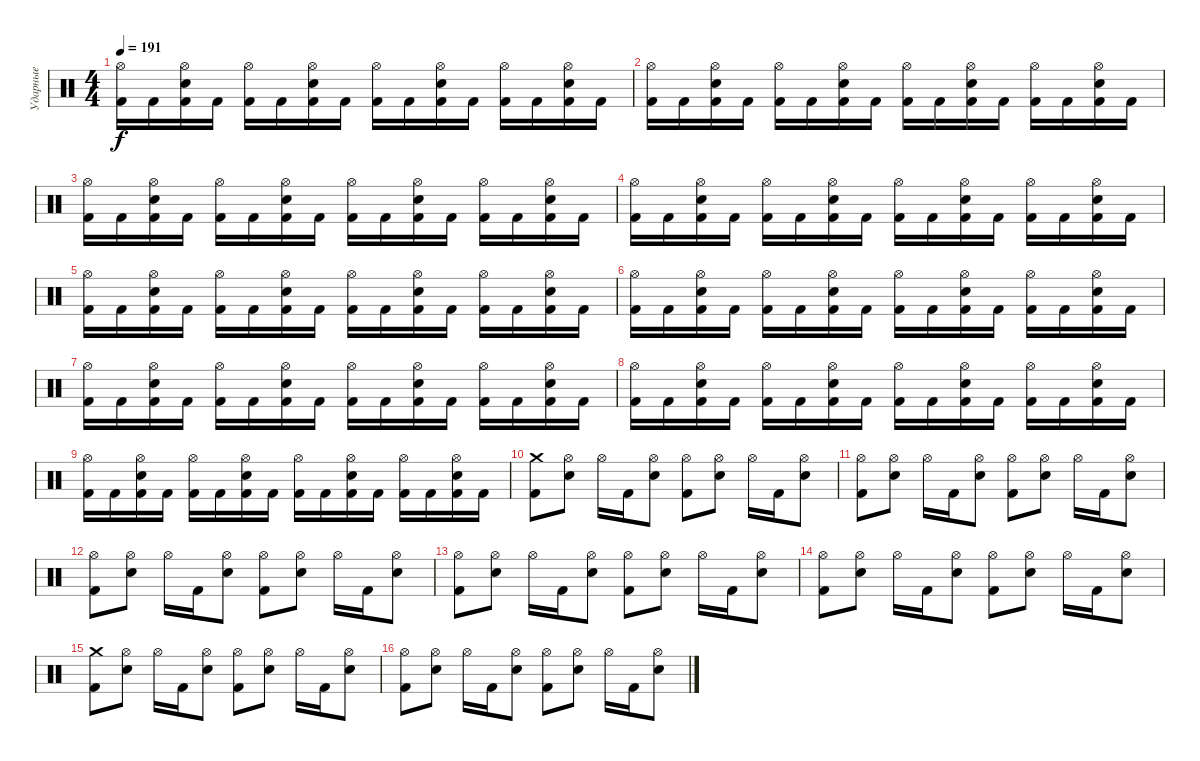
\track ("Ударные" "Ударные") {instrument percussion}
\staff {score}
\articulation defaults
\ts (4 4)
\tempo 191
\clef neutral
\ks c
("Hi-Hat (open)" "Kick (hit) 2").16{dy f} "Kick (hit) 2".16 ("Hi-Hat (open)" "Snare (hit) 2" "Kick (hit) 2").16 "Kick (hit) 2".16 ("Hi-Hat (open)" "Kick (hit) 2").16 "Kick (hit) 2".16 ("Hi-Hat (open)" "Snare (hit) 2" "Kick (hit) 2").16 "Kick (hit) 2".16 ("Hi-Hat (open)" "Kick (hit) 2").16 "Kick (hit) 2".16 ("Hi-Hat (open)" "Snare (hit) 2" "Kick (hit) 2").16 "Kick (hit) 2".16 ("Hi-Hat (open)" "Kick (hit) 2").16 "Kick (hit) 2".16 ("Hi-Hat (open)" "Snare (hit) 2" "Kick (hit) 2").16 "Kick (hit) 2".16 |
("Hi-Hat (open)" "Kick (hit) 2").16 "Kick (hit) 2".16 ("Hi-Hat (open)" "Snare (hit) 2" "Kick (hit) 2").16 "Kick (hit) 2".16 ("Hi-Hat (open)" "Kick (hit) 2").16 "Kick (hit) 2".16 ("Hi-Hat (open)" "Snare (hit) 2" "Kick (hit) 2").16 "Kick (hit) 2".16 ("Hi-Hat (open)" "Kick (hit) 2").16 "Kick (hit) 2".16 ("Hi-Hat (open)" "Snare (hit) 2" "Kick (hit) 2").16 "Kick (hit) 2".16 ("Hi-Hat (open)" "Kick (hit) 2").16 "Kick (hit) 2".16 ("Hi-Hat (open)" "Snare (hit) 2" "Kick (hit) 2").16 "Kick (hit) 2".16 |
("Hi-Hat (open)" "Kick (hit) 2").16 "Kick (hit) 2".16 ("Hi-Hat (open)" "Snare (hit) 2" "Kick (hit) 2").16 "Kick (hit) 2".16 ("Hi-Hat (open)" "Kick (hit) 2").16 "Kick (hit) 2".16 ("Hi-Hat (open)" "Snare (hit) 2" "Kick (hit) 2").16 "Kick (hit) 2".16 ("Hi-Hat (open)" "Kick (hit) 2").16 "Kick (hit) 2".16 ("Hi-Hat (open)" "Snare (hit) 2" "Kick (hit) 2").16 "Kick (hit) 2".16 ("Hi-Hat (open)" "Kick (hit) 2").16 "Kick (hit) 2".16 ("Hi-Hat (open)" "Snare (hit) 2" "Kick (hit) 2").16 "Kick (hit) 2".16 |
("Hi-Hat (open)" "Kick (hit) 2").16 "Kick (hit) 2".16 ("Hi-Hat (open)" "Snare (hit) 2" "Kick (hit) 2").16 "Kick (hit) 2".16 ("Hi-Hat (open)" "Kick (hit) 2").16 "Kick (hit) 2".16 ("Hi-Hat (open)" "Snare (hit) 2" "Kick (hit) 2").16 "Kick (hit) 2".16 ("Hi-Hat (open)" "Kick (hit) 2").16 "Kick (hit) 2".16 ("Hi-Hat (open)" "Snare (hit) 2" "Kick (hit) 2").16 "Kick (hit) 2".16 ("Hi-Hat (open)" "Kick (hit) 2").16 "Kick (hit) 2".16 ("Hi-Hat (open)" "Snare (hit) 2" "Kick (hit) 2").16 "Kick (hit) 2".16 |
("Hi-Hat (open)" "Kick (hit) 2").16 "Kick (hit) 2".16 ("Hi-Hat (open)" "Snare (hit) 2" "Kick (hit) 2").16 "Kick (hit) 2".16 ("Hi-Hat (open)" "Kick (hit) 2").16 "Kick (hit) 2".16 ("Hi-Hat (open)" "Snare (hit) 2" "Kick (hit) 2").16 "Kick (hit) 2".16 ("Hi-Hat (open)" "Kick (hit) 2").16 "Kick (hit) 2".16 ("Hi-Hat (open)" "Snare (hit) 2" "Kick (hit) 2").16 "Kick (hit) 2".16 ("Hi-Hat (open)" "Kick (hit) 2").16 "Kick (hit) 2".16 ("Hi-Hat (open)" "Snare (hit) 2" "Kick (hit) 2").16 "Kick (hit) 2".16 |
("Hi-Hat (open)" "Kick (hit) 2").16 "Kick (hit) 2".16 ("Hi-Hat (open)" "Snare (hit) 2" "Kick (hit) 2").16 "Kick (hit) 2".16 ("Hi-Hat (open)" "Kick (hit) 2").16 "Kick (hit) 2".16 ("Hi-Hat (open)" "Snare (hit) 2" "Kick (hit) 2").16 "Kick (hit) 2".16 ("Hi-Hat (open)" "Kick (hit) 2").16 "Kick (hit) 2".16 ("Hi-Hat (open)" "Snare (hit) 2" "Kick (hit) 2").16 "Kick (hit) 2".16 ("Hi-Hat (open)" "Kick (hit) 2").16 "Kick (hit) 2".16 ("Hi-Hat (open)" "Snare (hit) 2" "Kick (hit) 2").16 "Kick (hit) 2".16 |
("Hi-Hat (open)" "Kick (hit) 2").16 "Kick (hit) 2".16 ("Hi-Hat (open)" "Snare (hit) 2" "Kick (hit) 2").16 "Kick (hit) 2".16 ("Hi-Hat (open)" "Kick (hit) 2").16 "Kick (hit) 2".16 ("Hi-Hat (open)" "Snare (hit) 2" "Kick (hit) 2").16 "Kick (hit) 2".16 ("Hi-Hat (open)" "Kick (hit) 2").16 "Kick (hit) 2".16 ("Hi-Hat (open)" "Snare (hit) 2" "Kick (hit) 2").16 "Kick (hit) 2".16 ("Hi-Hat (open)" "Kick (hit) 2").16 "Kick (hit) 2".16 ("Hi-Hat (open)" "Snare (hit) 2" "Kick (hit) 2").16 "Kick (hit) 2".16 |
("Hi-Hat (open)" "Kick (hit) 2").16 "Kick (hit) 2".16 ("Hi-Hat (open)" "Snare (hit) 2" "Kick (hit) 2").16 "Kick (hit) 2".16 ("Hi-Hat (open)" "Kick (hit) 2").16 "Kick (hit) 2".16 ("Hi-Hat (open)" "Snare (hit) 2" "Kick (hit) 2").16 "Kick (hit) 2".16 ("Hi-Hat (open)" "Kick (hit) 2").16 "Kick (hit) 2".16 ("Hi-Hat (open)" "Snare (hit) 2" "Kick (hit) 2").16 "Kick (hit) 2".16 ("Hi-Hat (open)" "Kick (hit) 2").16 "Kick (hit) 2".16 ("Hi-Hat (open)" "Snare (hit) 2" "Kick (hit) 2").16 "Kick (hit) 2".16 |
("Hi-Hat (open)" "Kick (hit) 2").16 "Kick (hit) 2".16 ("Hi-Hat (open)" "Snare (hit) 2" "Kick (hit) 2").16 "Kick (hit) 2".16 ("Hi-Hat (open)" "Kick (hit) 2").16 "Kick (hit) 2".16 ("Hi-Hat (open)" "Snare (hit) 2" "Kick (hit) 2").16 "Kick (hit) 2".16 ("Hi-Hat (open)" "Kick (hit) 2").16 "Kick (hit) 2".16 ("Hi-Hat (open)" "Snare (hit) 2" "Kick (hit) 2").16 "Kick (hit) 2".16 ("Hi-Hat (open)" "Kick (hit) 2").16 "Kick (hit) 2".16 ("Hi-Hat (open)" "Snare (hit) 2" "Kick (hit) 2").16 "Kick (hit) 2".16 |
("Crash medium (hit)" "Kick (hit) 2").8 ("Hi-Hat (open)" "Snare (hit) 2").8 "Hi-Hat (open)".16 "Kick (hit) 2".16 ("Hi-Hat (open)" "Snare (hit) 2").8 ("Hi-Hat (open)" "Kick (hit) 2").8 ("Hi-Hat (open)" "Snare (hit) 2").8 "Hi-Hat (open)".16 "Kick (hit) 2".16 ("Hi-Hat (open)" "Snare (hit) 2").8 |
("Hi-Hat (open)" "Kick (hit) 2").8 ("Hi-Hat (open)" "Snare (hit) 2").8 "Hi-Hat (open)".16 "Kick (hit) 2".16 ("Hi-Hat (open)" "Snare (hit) 2").8 ("Hi-Hat (open)" "Kick (hit) 2").8 ("Hi-Hat (open)" "Snare (hit) 2").8 "Hi-Hat (open)".16 "Kick (hit) 2".16 ("Hi-Hat (open)" "Snare (hit) 2").8 |
("Hi-Hat (open)" "Kick (hit) 2").8 ("Hi-Hat (open)" "Snare (hit) 2").8 "Hi-Hat (open)".16 "Kick (hit) 2".16 ("Hi-Hat (open)" "Snare (hit) 2").8 ("Hi-Hat (open)" "Kick (hit) 2").8 ("Hi-Hat (open)" "Snare (hit) 2").8 "Hi-Hat (open)".16 "Kick (hit) 2".16 ("Hi-Hat (open)" "Snare (hit) 2").8 |
("Hi-Hat (open)" "Kick (hit) 2").8 ("Hi-Hat (open)" "Snare (hit) 2").8 "Hi-Hat (open)".16 "Kick (hit) 2".16 ("Hi-Hat (open)" "Snare (hit) 2").8 ("Hi-Hat (open)" "Kick (hit) 2").8 ("Hi-Hat (open)" "Snare (hit) 2").8 "Hi-Hat (open)".16 "Kick (hit) 2".16 ("Hi-Hat (open)" "Snare (hit) 2").8 |
("Hi-Hat (open)" "Kick (hit) 2").8 ("Hi-Hat (open)" "Snare (hit) 2").8 "Hi-Hat (open)".16 "Kick (hit) 2".16 ("Hi-Hat (open)" "Snare (hit) 2").8 ("Hi-Hat (open)" "Kick (hit) 2").8 ("Hi-Hat (open)" "Snare (hit) 2").8 "Hi-Hat (open)".16 "Kick (hit) 2".16 ("Hi-Hat (open)" "Snare (hit) 2").8 |
("Crash medium (hit)" "Kick (hit) 2").8 ("Hi-Hat (open)" "Snare (hit) 2").8 "Hi-Hat (open)".16 "Kick (hit) 2".16 ("Hi-Hat (open)" "Snare (hit) 2").8 ("Hi-Hat (open)" "Kick (hit) 2").8 ("Hi-Hat (open)" "Snare (hit) 2").8 "Hi-Hat (open)".16 "Kick (hit) 2".16 ("Hi-Hat (open)" "Snare (hit) 2").8 |
("Hi-Hat (open)" "Kick (hit) 2").8 ("Hi-Hat (open)" "Snare (hit) 2").8 "Hi-Hat (open)".16 "Kick (hit) 2".16 ("Hi-Hat (open)" "Snare (hit) 2").8 ("Hi-Hat (open)" "Kick (hit) 2").8 ("Hi-Hat (open)" "Snare (hit) 2").8 "Hi-Hat (open)".16 "Kick (hit) 2".16 ("Hi-Hat (open)" "Snare (hit) 2").8
